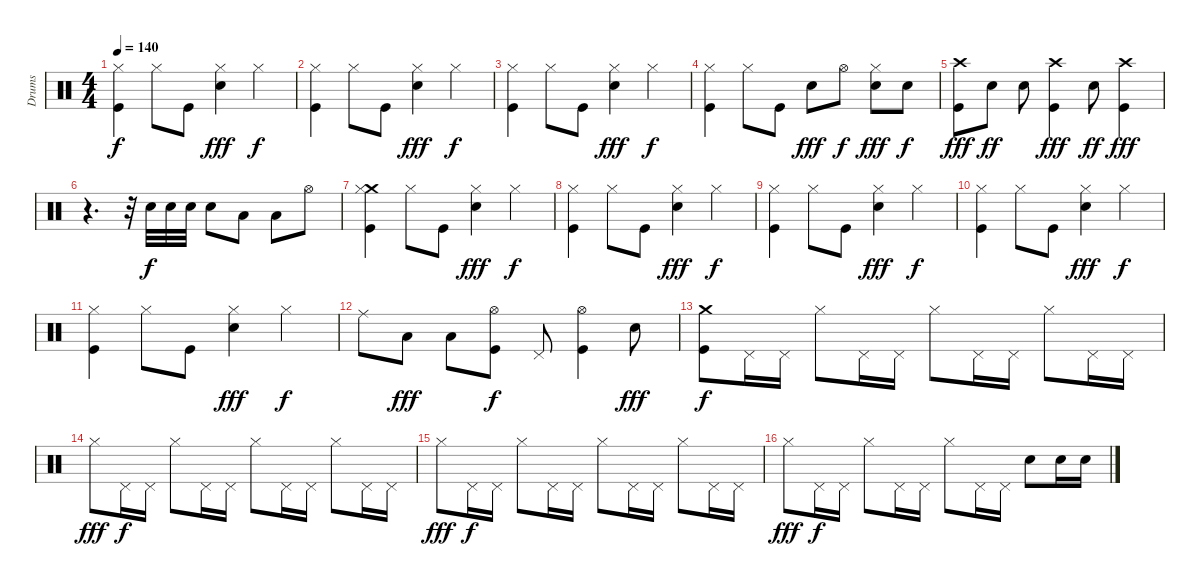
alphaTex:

\track ("Drums" "Drums") {instrument percussion}
\staff {score}
\articulation defaults
\ts (4 4)
\tempo 140
\clef neutral
\ks c
("Hi-Hat (closed)" "Kick (hit)").4{dy f} "Hi-Hat (closed)".8 "Kick (hit)".8 ("Electric Snare (hit)" "Hi-Hat (closed)").4{dy fff} "Hi-Hat (closed)".4{dy f} |
("Hi-Hat (closed)" "Kick (hit)").4 "Hi-Hat (closed)".8 "Kick (hit)".8 ("Electric Snare (hit)" "Hi-Hat (closed)").4{dy fff} "Hi-Hat (closed)".4{dy f} |
("Hi-Hat (closed)" "Kick (hit)").4 "Hi-Hat (closed)".8 "Kick (hit)".8 ("Electric Snare (hit)" "Hi-Hat (closed)").4{dy fff} "Hi-Hat (closed)".4{dy f} |
("Hi-Hat (closed)" "Kick (hit)").4 "Hi-Hat (closed)".8 "Kick (hit)".8 "Electric Snare (hit)".8{dy fff} "Hi-Hat (open)".8{dy f} ("Electric Snare (hit)" "Hi-Hat (closed)").8{dy fff} "Electric Snare (hit)".8{dy f} |
("Crash high (hit)" "Kick (hit)").8{dy fff} "Electric Snare (hit)".8{dy ff} "Electric Snare (hit)".8 ("Crash high (hit)" "Kick (hit)").4{dy fff} "Electric Snare (hit)".8{dy ff} ("Crash high (hit)" "Kick (hit)").4{dy fff} |
r.4{d} r.32 "Electric Snare (hit)".32{dy f} "Electric Snare (hit)".32 "Electric Snare (hit)".32 "Electric Snare (hit)".8 "Low Tom (hit)".8 "Low Tom (hit)".8 "Hi-Hat (open)".8 |
("Crash medium (hit)" "Hi-Hat (closed)" "Kick (hit)").4 "Hi-Hat (closed)".8 "Kick (hit)".8 ("Electric Snare (hit)" "Hi-Hat (closed)").4{dy fff} "Hi-Hat (closed)".4{dy f} |
("Hi-Hat (closed)" "Kick (hit)").4 "Hi-Hat (closed)".8 "Kick (hit)".8 ("Electric Snare (hit)" "Hi-Hat (closed)").4{dy fff} "Hi-Hat (closed)".4{dy f} |
("Hi-Hat (closed)" "Kick (hit)").4 "Hi-Hat (closed)".8 "Kick (hit)".8 ("Electric Snare (hit)" "Hi-Hat (closed)").4{dy fff} "Hi-Hat (closed)".4{dy f} |
("Hi-Hat (closed)" "Kick (hit)").4 "Hi-Hat (closed)".8 "Kick (hit)".8 ("Electric Snare (hit)" "Hi-Hat (closed)").4{dy fff} "Hi-Hat (closed)".4{dy f} |
("Hi-Hat (closed)" "Kick (hit)").4 "Hi-Hat (closed)".8 "Kick (hit)".8 ("Electric Snare (hit)" "Hi-Hat (closed)").4{dy fff} "Hi-Hat (closed)".4{dy f} |
"Ride (middle)".8 "Low Tom (hit)".8{dy fff} "Low Floor Tom (hit)".8 ("Hi-Hat (open)" "Kick (hit)").8{dy f} "Pedal Hi-Hat (hit)".8 ("Hi-Hat (open)" "Kick (hit)").4 "Electric Snare (hit)".8{dy fff} |
("Crash medium (hit)" "Kick (hit)").8{dy f} "Pedal Hi-Hat (hit)".16 "Pedal Hi-Hat (hit)".16 "Hi-Hat (closed)".8 "Pedal Hi-Hat (hit)".16 "Pedal Hi-Hat (hit)".16 "Hi-Hat (closed)".8 "Pedal Hi-Hat (hit)".16 "Pedal Hi-Hat (hit)".16 "Hi-Hat (closed)".8 "Pedal Hi-Hat (hit)".16 "Pedal Hi-Hat (hit)".16 |
"Hi-Hat (closed)".8{dy fff} "Pedal Hi-Hat (hit)".16{dy f} "Pedal Hi-Hat (hit)".16 "Hi-Hat (closed)".8 "Pedal Hi-Hat (hit)".16 "Pedal Hi-Hat (hit)".16 "Hi-Hat (closed)".8 "Pedal Hi-Hat (hit)".16 "Pedal Hi-Hat (hit)".16 "Hi-Hat (closed)".8 "Pedal Hi-Hat (hit)".16 "Pedal Hi-Hat (hit)".16 |
"Hi-Hat (closed)".8{dy fff} "Pedal Hi-Hat (hit)".16{dy f} "Pedal Hi-Hat (hit)".16 "Hi-Hat (closed)".8 "Pedal Hi-Hat (hit)".16 "Pedal Hi-Hat (hit)".16 "Hi-Hat (closed)".8 "Pedal Hi-Hat (hit)".16 "Pedal Hi-Hat (hit)".16 "Hi-Hat (closed)".8 "Pedal Hi-Hat (hit)".16 "Pedal Hi-Hat (hit)".16 |
"Hi-Hat (closed)".8{dy fff} "Pedal Hi-Hat (hit)".16{dy f} "Pedal Hi-Hat (hit)".16 "Hi-Hat (closed)".8 "Pedal Hi-Hat (hit)".16 "Pedal Hi-Hat (hit)".16 "Hi-Hat (closed)".8 "Pedal Hi-Hat (hit)".16 "Pedal Hi-Hat (hit)".16 "Electric Snare (hit)".8 "Electric Snare (hit)".16 "Electric Snare (hit)".16
